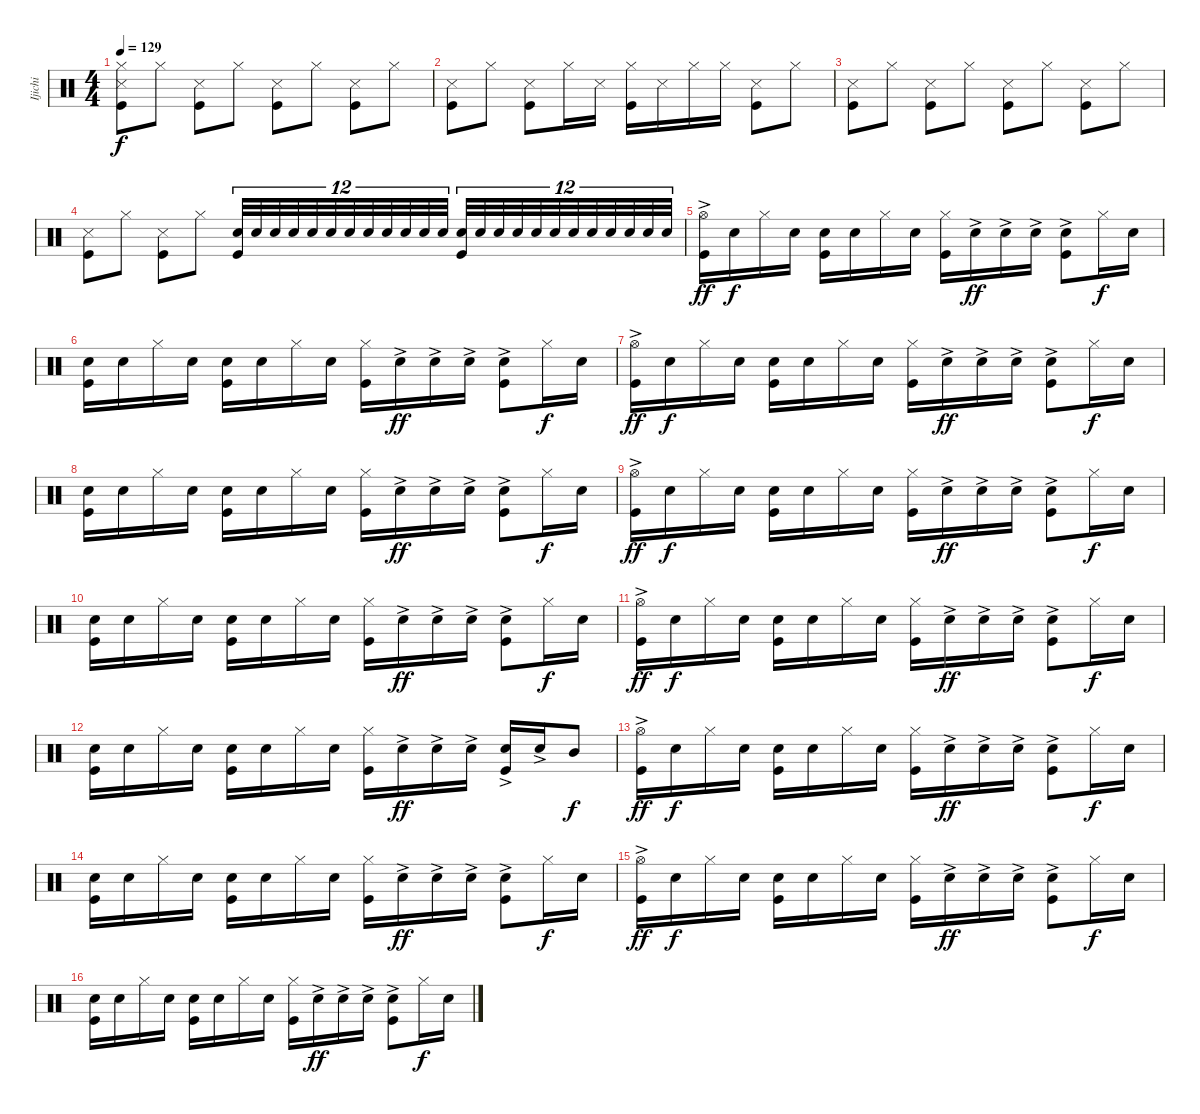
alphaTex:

\track ("Ijichi" "Ijichi") {instrument percussion}
\staff {score}
\articulation defaults
\ts (4 4)
\tempo 129
\clef neutral
\ks c
("Hi-Hat (closed)" "Snare (side stick) 3" "Kick (hit)").8{dy f} "Hi-Hat (closed)".8 ("Snare (side stick) 3" "Kick (hit)").8 "Hi-Hat (closed)".8 ("Snare (side stick) 3" "Kick (hit)").8 "Hi-Hat (closed)".8 ("Snare (side stick) 3" "Kick (hit)").8 "Hi-Hat (closed)".8 |
("Snare (side stick) 3" "Kick (hit)").8 "Hi-Hat (closed)".8 ("Snare (side stick) 3" "Kick (hit)").8 "Hi-Hat (closed)".16 "Snare (side stick) 3".16 ("Hi-Hat (closed)" "Kick (hit)").16 "Snare (side stick) 3".16 "Hi-Hat (closed)".16 "Hi-Hat (closed)".16 ("Snare (side stick) 3" "Kick (hit)").8 "Hi-Hat (closed)".8 |
("Snare (side stick) 3" "Kick (hit)").8 "Hi-Hat (closed)".8 ("Snare (side stick) 3" "Kick (hit)").8 "Hi-Hat (closed)".8 ("Snare (side stick) 3" "Kick (hit)").8 "Hi-Hat (closed)".8 ("Snare (side stick) 3" "Kick (hit)").8 "Hi-Hat (closed)".8 |
("Snare (side stick) 3" "Kick (hit)").8 "Hi-Hat (closed)".8 ("Snare (side stick) 3" "Kick (hit)").8 "Hi-Hat (closed)".8 ("Snare (hit) 2" "Kick (hit)").32{tu (12 8)} "Snare (hit) 2".32{tu (12 8)} "Snare (hit) 2".32{tu (12 8)} "Snare (hit) 2".32{tu (12 8)} "Snare (hit) 2".32{tu (12 8)} "Snare (hit) 2".32{tu (12 8)} "Snare (hit) 2".32{tu (12 8)} "Snare (hit) 2".32{tu (12 8)} "Snare (hit) 2".32{tu (12 8)} "Snare (hit) 2".32{tu (12 8)} "Snare (hit) 2".32{tu (12 8)} "Snare (hit) 2".32{tu (12 8)} ("Snare (hit) 2" "Kick (hit)").32{tu (12 8)} "Snare (hit) 2".32{tu (12 8)} "Snare (hit) 2".32{tu (12 8)} "Snare (hit) 2".32{tu (12 8)} "Snare (hit) 2".32{tu (12 8)} "Snare (hit) 2".32{tu (12 8)} "Snare (hit) 2".32{tu (12 8)} "Snare (hit) 2".32{tu (12 8)} "Snare (hit) 2".32{tu (12 8)} "Snare (hit) 2".32{tu (12 8)} "Snare (hit) 2".32{tu (12 8)} "Snare (hit) 2".32{tu (12 8)} |
("Hi-Hat (open)"{ac} "Kick (hit)").16{dy ff} "Snare (hit) 2".16{dy f} "Hi-Hat (closed)".16 "Snare (hit) 2".16 ("Snare (hit) 2" "Kick (hit)").16 "Snare (hit) 2".16 "Hi-Hat (closed)".16 "Snare (hit) 2".16 ("Hi-Hat (closed)" "Kick (hit)").16 "Snare (hit) 2"{ac}.16{dy ff} "Snare (hit) 2"{ac}.16 "Snare (hit) 2"{ac}.16 ("Snare (hit) 2"{ac} "Kick (hit)").8 "Hi-Hat (closed)".16{dy f} "Snare (hit) 2".16 |
("Snare (hit) 2" "Kick (hit)").16 "Snare (hit) 2".16 "Hi-Hat (closed)".16 "Snare (hit) 2".16 ("Snare (hit) 2" "Kick (hit)").16 "Snare (hit) 2".16 "Hi-Hat (closed)".16 "Snare (hit) 2".16 ("Hi-Hat (closed)" "Kick (hit)").16 "Snare (hit) 2"{ac}.16{dy ff} "Snare (hit) 2"{ac}.16 "Snare (hit) 2"{ac}.16 ("Snare (hit) 2"{ac} "Kick (hit)").8 "Hi-Hat (closed)".16{dy f} "Snare (hit) 2".16 |
("Hi-Hat (open)"{ac} "Kick (hit)").16{dy ff} "Snare (hit) 2".16{dy f} "Hi-Hat (closed)".16 "Snare (hit) 2".16 ("Snare (hit) 2" "Kick (hit)").16 "Snare (hit) 2".16 "Hi-Hat (closed)".16 "Snare (hit) 2".16 ("Hi-Hat (closed)" "Kick (hit)").16 "Snare (hit) 2"{ac}.16{dy ff} "Snare (hit) 2"{ac}.16 "Snare (hit) 2"{ac}.16 ("Snare (hit) 2"{ac} "Kick (hit)").8 "Hi-Hat (closed)".16{dy f} "Snare (hit) 2".16 |
("Snare (hit) 2" "Kick (hit)").16 "Snare (hit) 2".16 "Hi-Hat (closed)".16 "Snare (hit) 2".16 ("Snare (hit) 2" "Kick (hit)").16 "Snare (hit) 2".16 "Hi-Hat (closed)".16 "Snare (hit) 2".16 ("Hi-Hat (closed)" "Kick (hit)").16 "Snare (hit) 2"{ac}.16{dy ff} "Snare (hit) 2"{ac}.16 "Snare (hit) 2"{ac}.16 ("Snare (hit) 2"{ac} "Kick (hit)").8 "Hi-Hat (closed)".16{dy f} "Snare (hit) 2".16 |
("Hi-Hat (open)"{ac} "Kick (hit)").16{dy ff} "Snare (hit) 2".16{dy f} "Hi-Hat (closed)".16 "Snare (hit) 2".16 ("Snare (hit) 2" "Kick (hit)").16 "Snare (hit) 2".16 "Hi-Hat (closed)".16 "Snare (hit) 2".16 ("Hi-Hat (closed)" "Kick (hit)").16 "Snare (hit) 2"{ac}.16{dy ff} "Snare (hit) 2"{ac}.16 "Snare (hit) 2"{ac}.16 ("Snare (hit) 2"{ac} "Kick (hit)").8 "Hi-Hat (closed)".16{dy f} "Snare (hit) 2".16 |
("Snare (hit) 2" "Kick (hit)").16 "Snare (hit) 2".16 "Hi-Hat (closed)".16 "Snare (hit) 2".16 ("Snare (hit) 2" "Kick (hit)").16 "Snare (hit) 2".16 "Hi-Hat (closed)".16 "Snare (hit) 2".16 ("Hi-Hat (closed)" "Kick (hit)").16 "Snare (hit) 2"{ac}.16{dy ff} "Snare (hit) 2"{ac}.16 "Snare (hit) 2"{ac}.16 ("Snare (hit) 2"{ac} "Kick (hit)").8 "Hi-Hat (closed)".16{dy f} "Snare (hit) 2".16 |
("Hi-Hat (open)"{ac} "Kick (hit)").16{dy ff} "Snare (hit) 2".16{dy f} "Hi-Hat (closed)".16 "Snare (hit) 2".16 ("Snare (hit) 2" "Kick (hit)").16 "Snare (hit) 2".16 "Hi-Hat (closed)".16 "Snare (hit) 2".16 ("Hi-Hat (closed)" "Kick (hit)").16 "Snare (hit) 2"{ac}.16{dy ff} "Snare (hit) 2"{ac}.16 "Snare (hit) 2"{ac}.16 ("Snare (hit) 2"{ac} "Kick (hit)").8 "Hi-Hat (closed)".16{dy f} "Snare (hit) 2".16 |
("Snare (hit) 2" "Kick (hit)").16 "Snare (hit) 2".16 "Hi-Hat (closed)".16 "Snare (hit) 2".16 ("Snare (hit) 2" "Kick (hit)").16 "Snare (hit) 2".16 "Hi-Hat (closed)".16 "Snare (hit) 2".16 ("Hi-Hat (closed)" "Kick (hit)").16 "Snare (hit) 2"{ac}.16{dy ff} "Snare (hit) 2"{ac}.16 "Snare (hit) 2"{ac}.16 ("Snare (hit) 2"{ac} "Kick (hit)").16 "Snare (hit) 2"{ac}.16 "Mid Tom (hit)".8{dy f} |
("Hi-Hat (open)"{ac} "Kick (hit)").16{dy ff} "Snare (hit) 2".16{dy f} "Hi-Hat (closed)".16 "Snare (hit) 2".16 ("Snare (hit) 2" "Kick (hit)").16 "Snare (hit) 2".16 "Hi-Hat (closed)".16 "Snare (hit) 2".16 ("Hi-Hat (closed)" "Kick (hit)").16 "Snare (hit) 2"{ac}.16{dy ff} "Snare (hit) 2"{ac}.16 "Snare (hit) 2"{ac}.16 ("Snare (hit) 2"{ac} "Kick (hit)").8 "Hi-Hat (closed)".16{dy f} "Snare (hit) 2".16 |
("Snare (hit) 2" "Kick (hit)").16 "Snare (hit) 2".16 "Hi-Hat (closed)".16 "Snare (hit) 2".16 ("Snare (hit) 2" "Kick (hit)").16 "Snare (hit) 2".16 "Hi-Hat (closed)".16 "Snare (hit) 2".16 ("Hi-Hat (closed)" "Kick (hit)").16 "Snare (hit) 2"{ac}.16{dy ff} "Snare (hit) 2"{ac}.16 "Snare (hit) 2"{ac}.16 ("Snare (hit) 2"{ac} "Kick (hit)").8 "Hi-Hat (closed)".16{dy f} "Snare (hit) 2".16 |
("Hi-Hat (open)"{ac} "Kick (hit)").16{dy ff} "Snare (hit) 2".16{dy f} "Hi-Hat (closed)".16 "Snare (hit) 2".16 ("Snare (hit) 2" "Kick (hit)").16 "Snare (hit) 2".16 "Hi-Hat (closed)".16 "Snare (hit) 2".16 ("Hi-Hat (closed)" "Kick (hit)").16 "Snare (hit) 2"{ac}.16{dy ff} "Snare (hit) 2"{ac}.16 "Snare (hit) 2"{ac}.16 ("Snare (hit) 2"{ac} "Kick (hit)").8 "Hi-Hat (closed)".16{dy f} "Snare (hit) 2".16 |
("Snare (hit) 2" "Kick (hit)").16 "Snare (hit) 2".16 "Hi-Hat (closed)".16 "Snare (hit) 2".16 ("Snare (hit) 2" "Kick (hit)").16 "Snare (hit) 2".16 "Hi-Hat (closed)".16 "Snare (hit) 2".16 ("Hi-Hat (closed)" "Kick (hit)").16 "Snare (hit) 2"{ac}.16{dy ff} "Snare (hit) 2"{ac}.16 "Snare (hit) 2"{ac}.16 ("Snare (hit) 2"{ac} "Kick (hit)").8 "Hi-Hat (closed)".16{dy f} "Snare (hit) 2".16
